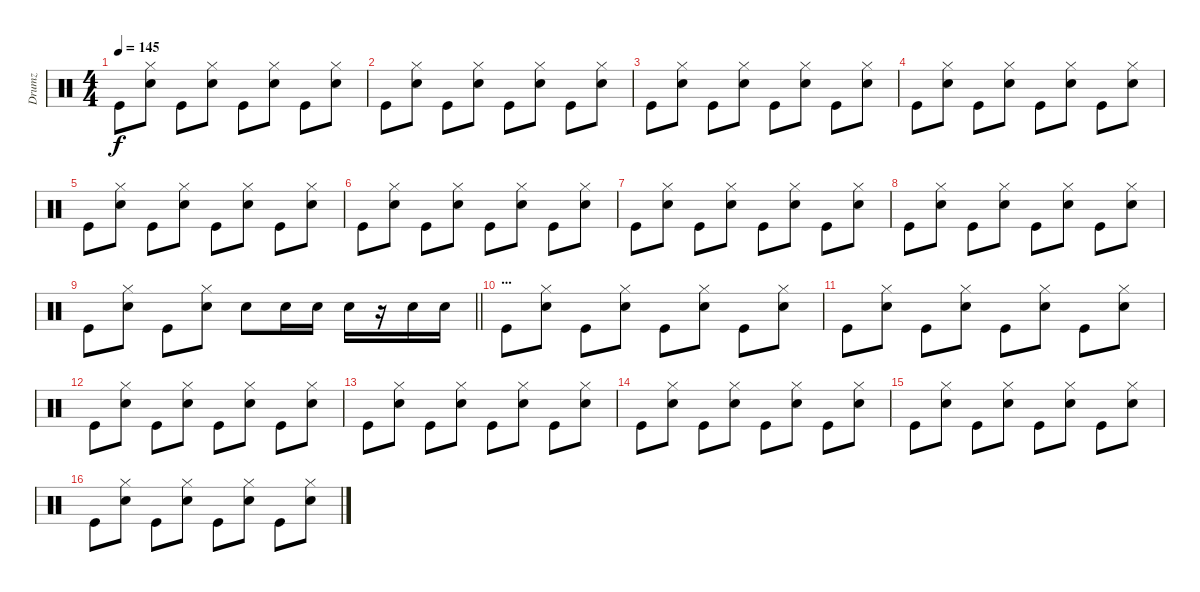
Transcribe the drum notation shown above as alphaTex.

\track ("Drumz" "Drumz") {instrument percussion}
\staff {score}
\articulation defaults
\ts (4 4)
\tempo 145
\clef neutral
\ks c "Kick (hit)".8{dy f}
("Hi-Hat (closed)" "Snare (hit) 2").8 "Kick (hit)".8 ("Hi-Hat (closed)" "Snare (hit) 2").8 "Kick (hit)".8 ("Hi-Hat (closed)" "Snare (hit) 2").8 "Kick (hit)".8 ("Hi-Hat (closed)" "Snare (hit) 2").8 |
"Kick (hit)".8 ("Hi-Hat (closed)" "Snare (hit) 2").8 "Kick (hit)".8 ("Hi-Hat (closed)" "Snare (hit) 2").8 "Kick (hit)".8 ("Hi-Hat (closed)" "Snare (hit) 2").8 "Kick (hit)".8 ("Hi-Hat (closed)" "Snare (hit) 2").8 |
"Kick (hit)".8 ("Hi-Hat (closed)" "Snare (hit) 2").8 "Kick (hit)".8 ("Hi-Hat (closed)" "Snare (hit) 2").8 "Kick (hit)".8 ("Hi-Hat (closed)" "Snare (hit) 2").8 "Kick (hit)".8 ("Hi-Hat (closed)" "Snare (hit) 2").8 |
"Kick (hit)".8 ("Hi-Hat (closed)" "Snare (hit) 2").8 "Kick (hit)".8 ("Hi-Hat (closed)" "Snare (hit) 2").8 "Kick (hit)".8 ("Hi-Hat (closed)" "Snare (hit) 2").8 "Kick (hit)".8 ("Hi-Hat (closed)" "Snare (hit) 2").8 |
"Kick (hit)".8 ("Hi-Hat (closed)" "Snare (hit) 2").8 "Kick (hit)".8 ("Hi-Hat (closed)" "Snare (hit) 2").8 "Kick (hit)".8 ("Hi-Hat (closed)" "Snare (hit) 2").8 "Kick (hit)".8 ("Hi-Hat (closed)" "Snare (hit) 2").8 |
"Kick (hit)".8 ("Hi-Hat (closed)" "Snare (hit) 2").8 "Kick (hit)".8 ("Hi-Hat (closed)" "Snare (hit) 2").8 "Kick (hit)".8 ("Hi-Hat (closed)" "Snare (hit) 2").8 "Kick (hit)".8 ("Hi-Hat (closed)" "Snare (hit) 2").8 |
"Kick (hit)".8 ("Hi-Hat (closed)" "Snare (hit) 2").8 "Kick (hit)".8 ("Hi-Hat (closed)" "Snare (hit) 2").8 "Kick (hit)".8 ("Hi-Hat (closed)" "Snare (hit) 2").8 "Kick (hit)".8 ("Hi-Hat (closed)" "Snare (hit) 2").8 |
"Kick (hit)".8 ("Hi-Hat (closed)" "Snare (hit) 2").8 "Kick (hit)".8 ("Hi-Hat (closed)" "Snare (hit) 2").8 "Kick (hit)".8 ("Hi-Hat (closed)" "Snare (hit) 2").8 "Kick (hit)".8 ("Hi-Hat (closed)" "Snare (hit) 2").8 |
\barLineRight lightlight "Kick (hit)".8
("Hi-Hat (closed)" "Snare (hit) 2").8 "Kick (hit)".8 ("Hi-Hat (closed)" "Snare (hit) 2").8 "Snare (hit) 2".8 "Snare (hit) 2".16 "Snare (hit) 2".16 "Snare (hit) 2".16 r.16 "Snare (hit) 2".16 "Snare (hit) 2".16 |
\section ("" "...")
"Kick (hit)".8 ("Hi-Hat (closed)" "Snare (hit) 2").8 "Kick (hit)".8 ("Hi-Hat (closed)" "Snare (hit) 2").8 "Kick (hit)".8 ("Hi-Hat (closed)" "Snare (hit) 2").8 "Kick (hit)".8 ("Hi-Hat (closed)" "Snare (hit) 2").8 |
"Kick (hit)".8 ("Hi-Hat (closed)" "Snare (hit) 2").8 "Kick (hit)".8 ("Hi-Hat (closed)" "Snare (hit) 2").8 "Kick (hit)".8 ("Hi-Hat (closed)" "Snare (hit) 2").8 "Kick (hit)".8 ("Hi-Hat (closed)" "Snare (hit) 2").8 |
"Kick (hit)".8 ("Hi-Hat (closed)" "Snare (hit) 2").8 "Kick (hit)".8 ("Hi-Hat (closed)" "Snare (hit) 2").8 "Kick (hit)".8 ("Hi-Hat (closed)" "Snare (hit) 2").8 "Kick (hit)".8 ("Hi-Hat (closed)" "Snare (hit) 2").8 |
"Kick (hit)".8 ("Hi-Hat (closed)" "Snare (hit) 2").8 "Kick (hit)".8 ("Hi-Hat (closed)" "Snare (hit) 2").8 "Kick (hit)".8 ("Hi-Hat (closed)" "Snare (hit) 2").8 "Kick (hit)".8 ("Hi-Hat (closed)" "Snare (hit) 2").8 |
"Kick (hit)".8 ("Hi-Hat (closed)" "Snare (hit) 2").8 "Kick (hit)".8 ("Hi-Hat (closed)" "Snare (hit) 2").8 "Kick (hit)".8 ("Hi-Hat (closed)" "Snare (hit) 2").8 "Kick (hit)".8 ("Hi-Hat (closed)" "Snare (hit) 2").8 |
"Kick (hit)".8 ("Hi-Hat (closed)" "Snare (hit) 2").8 "Kick (hit)".8 ("Hi-Hat (closed)" "Snare (hit) 2").8 "Kick (hit)".8 ("Hi-Hat (closed)" "Snare (hit) 2").8 "Kick (hit)".8 ("Hi-Hat (closed)" "Snare (hit) 2").8 |
"Kick (hit)".8 ("Hi-Hat (closed)" "Snare (hit) 2").8 "Kick (hit)".8 ("Hi-Hat (closed)" "Snare (hit) 2").8 "Kick (hit)".8 ("Hi-Hat (closed)" "Snare (hit) 2").8 "Kick (hit)".8 ("Hi-Hat (closed)" "Snare (hit) 2").8
